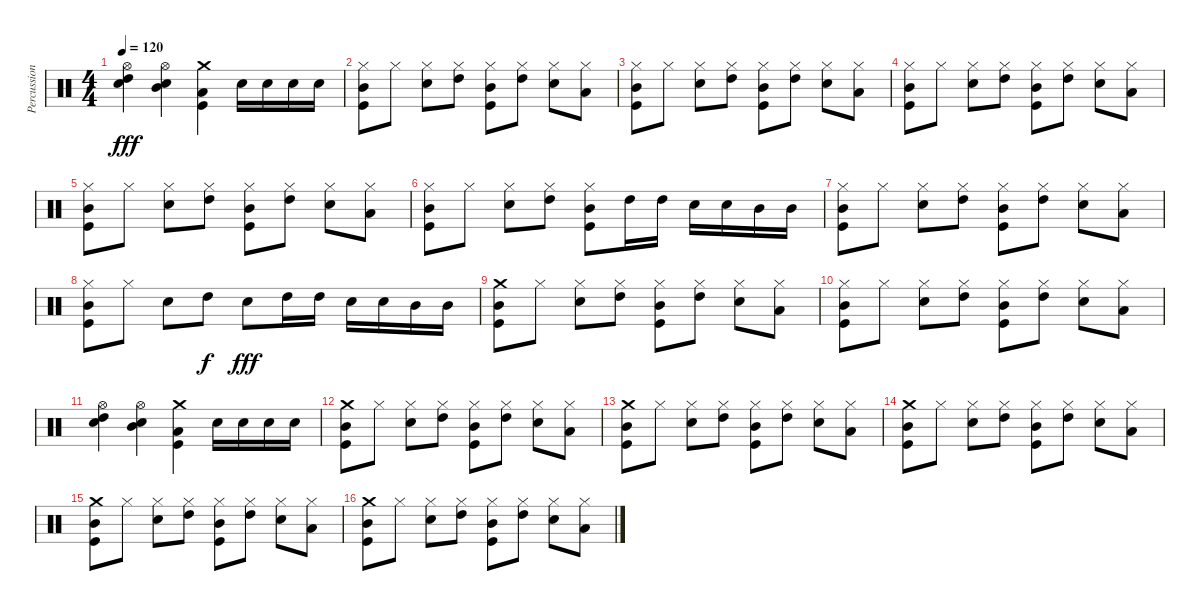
\track ("Percussion" "Percussion") {instrument percussion}
\staff {score}
\articulation defaults
\ts (4 4)
\tempo 120
\clef neutral
\ks c
("Hi-Hat (open)" "Electric Snare (hit)" "High Tom (hit)").4{dy fff} ("Hi-Hat (open)" "Electric Snare (hit)" "Mid Tom (hit)").4 ("Crash medium (hit)" "Low Tom (hit)" "Kick (hit)").4 "Electric Snare (hit)".16 "Electric Snare (hit)".16 "Electric Snare (hit)".16 "Electric Snare (hit)".16 |
("Hi-Hat (closed)" "Mid Tom (hit)" "Kick (hit)").8{volume 12} "Hi-Hat (closed)".8 ("Hi-Hat (closed)" "Electric Snare (hit)").8 ("Hi-Hat (closed)" "High Tom (hit)").8 ("Hi-Hat (closed)" "Mid Tom (hit)" "Kick (hit)").8 ("Hi-Hat (closed)" "High Tom (hit)").8 ("Hi-Hat (closed)" "Electric Snare (hit)").8 ("Hi-Hat (closed)" "Low Tom (hit)").8 |
("Hi-Hat (closed)" "Mid Tom (hit)" "Kick (hit)").8 "Hi-Hat (closed)".8 ("Hi-Hat (closed)" "Electric Snare (hit)").8 ("Hi-Hat (closed)" "High Tom (hit)").8 ("Hi-Hat (closed)" "Mid Tom (hit)" "Kick (hit)").8 ("Hi-Hat (closed)" "High Tom (hit)").8 ("Hi-Hat (closed)" "Electric Snare (hit)").8 ("Hi-Hat (closed)" "Low Tom (hit)").8 |
("Hi-Hat (closed)" "Mid Tom (hit)" "Kick (hit)").8 "Hi-Hat (closed)".8 ("Hi-Hat (closed)" "Electric Snare (hit)").8 ("Hi-Hat (closed)" "High Tom (hit)").8 ("Hi-Hat (closed)" "Mid Tom (hit)" "Kick (hit)").8 ("Hi-Hat (closed)" "High Tom (hit)").8 ("Hi-Hat (closed)" "Electric Snare (hit)").8 ("Hi-Hat (closed)" "Low Tom (hit)").8 |
("Hi-Hat (closed)" "Mid Tom (hit)" "Kick (hit)").8 "Hi-Hat (closed)".8 ("Hi-Hat (closed)" "Electric Snare (hit)").8 ("Hi-Hat (closed)" "High Tom (hit)").8 ("Hi-Hat (closed)" "Mid Tom (hit)" "Kick (hit)").8 ("Hi-Hat (closed)" "High Tom (hit)").8 ("Hi-Hat (closed)" "Electric Snare (hit)").8 ("Hi-Hat (closed)" "Low Tom (hit)").8 |
("Hi-Hat (closed)" "Mid Tom (hit)" "Kick (hit)").8 "Hi-Hat (closed)".8 ("Hi-Hat (closed)" "Electric Snare (hit)").8 ("Hi-Hat (closed)" "High Tom (hit)").8 ("Hi-Hat (closed)" "Mid Tom (hit)" "Kick (hit)").8 "High Tom (hit)".16{volume 16} "High Tom (hit)".16 "Electric Snare (hit)".16 "Electric Snare (hit)".16 "Mid Tom (hit)".16 "Mid Tom (hit)".16 |
("Hi-Hat (closed)" "Mid Tom (hit)" "Kick (hit)").8{volume 12} "Hi-Hat (closed)".8 ("Hi-Hat (closed)" "Electric Snare (hit)").8 ("Hi-Hat (closed)" "High Tom (hit)").8 ("Hi-Hat (closed)" "Mid Tom (hit)" "Kick (hit)").8 ("Hi-Hat (closed)" "High Tom (hit)").8 ("Hi-Hat (closed)" "Electric Snare (hit)").8 ("Hi-Hat (closed)" "Low Tom (hit)").8 |
("Hi-Hat (closed)" "Mid Tom (hit)" "Kick (hit)").8 "Hi-Hat (closed)".8 "Electric Snare (hit)".8{volume 16} "High Tom (hit)".8{dy f} "Electric Snare (hit)".8{dy fff} "High Tom (hit)".16 "High Tom (hit)".16 "Electric Snare (hit)".16 "Electric Snare (hit)".16 "Mid Tom (hit)".16 "Mid Tom (hit)".16 |
("Crash medium (hit)" "Mid Tom (hit)" "Kick (hit)").8{volume 12} "Hi-Hat (closed)".8 ("Hi-Hat (closed)" "Electric Snare (hit)").8 ("Hi-Hat (closed)" "High Tom (hit)").8 ("Hi-Hat (closed)" "Mid Tom (hit)" "Kick (hit)").8 ("Hi-Hat (closed)" "High Tom (hit)").8 ("Hi-Hat (closed)" "Electric Snare (hit)").8 ("Hi-Hat (closed)" "Low Tom (hit)").8 |
("Hi-Hat (closed)" "Mid Tom (hit)" "Kick (hit)").8 "Hi-Hat (closed)".8 ("Hi-Hat (closed)" "Electric Snare (hit)").8 ("Hi-Hat (closed)" "High Tom (hit)").8 ("Hi-Hat (closed)" "Mid Tom (hit)" "Kick (hit)").8 ("Hi-Hat (closed)" "High Tom (hit)").8 ("Hi-Hat (closed)" "Electric Snare (hit)").8 ("Hi-Hat (closed)" "Low Tom (hit)").8 |
("Hi-Hat (open)" "Electric Snare (hit)" "High Tom (hit)").4 ("Hi-Hat (open)" "Electric Snare (hit)" "Mid Tom (hit)").4 ("Crash medium (hit)" "Low Tom (hit)" "Kick (hit)").4 "Electric Snare (hit)".16{volume 16} "Electric Snare (hit)".16 "Electric Snare (hit)".16 "Electric Snare (hit)".16 |
("Crash medium (hit)" "Mid Tom (hit)" "Kick (hit)").8 "Hi-Hat (closed)".8 ("Hi-Hat (closed)" "Electric Snare (hit)").8 ("Hi-Hat (closed)" "High Tom (hit)").8 ("Hi-Hat (closed)" "Mid Tom (hit)" "Kick (hit)").8 ("Hi-Hat (closed)" "High Tom (hit)").8 ("Hi-Hat (closed)" "Electric Snare (hit)").8 ("Hi-Hat (closed)" "Low Tom (hit)").8 |
("Crash medium (hit)" "Mid Tom (hit)" "Kick (hit)").8 "Hi-Hat (closed)".8 ("Hi-Hat (closed)" "Electric Snare (hit)").8 ("Hi-Hat (closed)" "High Tom (hit)").8 ("Hi-Hat (closed)" "Mid Tom (hit)" "Kick (hit)").8 ("Hi-Hat (closed)" "High Tom (hit)").8 ("Hi-Hat (closed)" "Electric Snare (hit)").8 ("Hi-Hat (closed)" "Low Tom (hit)").8 |
("Crash medium (hit)" "Mid Tom (hit)" "Kick (hit)").8 "Hi-Hat (closed)".8 ("Hi-Hat (closed)" "Electric Snare (hit)").8 ("Hi-Hat (closed)" "High Tom (hit)").8 ("Hi-Hat (closed)" "Mid Tom (hit)" "Kick (hit)").8 ("Hi-Hat (closed)" "High Tom (hit)").8 ("Hi-Hat (closed)" "Electric Snare (hit)").8 ("Hi-Hat (closed)" "Low Tom (hit)").8 |
("Crash medium (hit)" "Mid Tom (hit)" "Kick (hit)").8{volume 0} "Hi-Hat (closed)".8 ("Hi-Hat (closed)" "Electric Snare (hit)").8 ("Hi-Hat (closed)" "High Tom (hit)").8 ("Hi-Hat (closed)" "Mid Tom (hit)" "Kick (hit)").8 ("Hi-Hat (closed)" "High Tom (hit)").8 ("Hi-Hat (closed)" "Electric Snare (hit)").8 ("Hi-Hat (closed)" "Low Tom (hit)").8 |
("Crash medium (hit)" "Mid Tom (hit)" "Kick (hit)").8 "Hi-Hat (closed)".8 ("Hi-Hat (closed)" "Electric Snare (hit)").8 ("Hi-Hat (closed)" "High Tom (hit)").8 ("Hi-Hat (closed)" "Mid Tom (hit)" "Kick (hit)").8 ("Hi-Hat (closed)" "High Tom (hit)").8 ("Hi-Hat (closed)" "Electric Snare (hit)").8 ("Hi-Hat (closed)" "Low Tom (hit)").8
